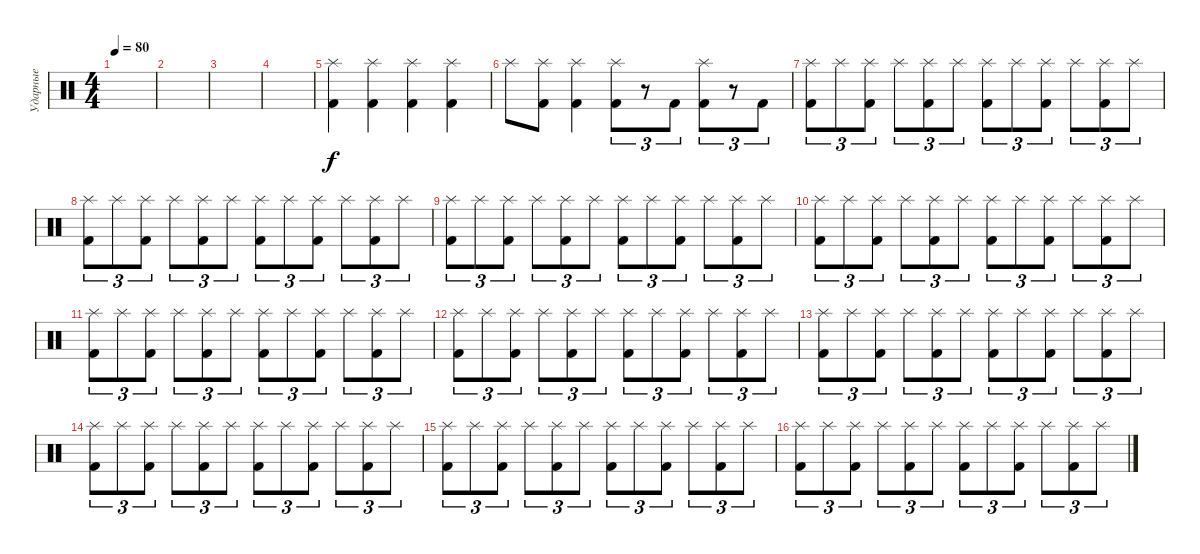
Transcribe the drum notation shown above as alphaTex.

\track ("Ударные" "Ударные") {instrument percussion}
\staff {score}
\articulation defaults
\ts (4 4)
\tempo 80
\clef neutral
\ks c
|
|
|
|
("Splash (hit)" "Kick (hit) 2").4 ("Splash (hit)" "Kick (hit) 2").4 ("Splash (hit)" "Kick (hit) 2").4 ("Splash (hit)" "Kick (hit) 2").4 |
"Splash (hit)".8 ("Splash (hit)" "Kick (hit) 2").8 ("Splash (hit)" "Kick (hit) 2").4 ("Splash (hit)" "Kick (hit) 2").8{tu (3 2)} r.8{tu (3 2)} "Kick (hit) 2".8{tu (3 2)} ("Splash (hit)" "Kick (hit) 2").8{tu (3 2)} r.8{tu (3 2)} "Kick (hit) 2".8{tu (3 2)} |
("Splash (hit)" "Kick (hit) 2").8{tu (3 2)} "Splash (hit)".8{tu (3 2)} ("Splash (hit)" "Kick (hit) 2").8{tu (3 2)} "Splash (hit)".8{tu (3 2)} ("Splash (hit)" "Kick (hit) 2").8{tu (3 2)} "Splash (hit)".8{tu (3 2)} ("Splash (hit)" "Kick (hit) 2").8{tu (3 2)} "Splash (hit)".8{tu (3 2)} ("Splash (hit)" "Kick (hit) 2").8{tu (3 2)} "Splash (hit)".8{tu (3 2)} ("Splash (hit)" "Kick (hit) 2").8{tu (3 2)} "Splash (hit)".8{tu (3 2)} |
("Splash (hit)" "Kick (hit) 2").8{tu (3 2)} "Splash (hit)".8{tu (3 2)} ("Splash (hit)" "Kick (hit) 2").8{tu (3 2)} "Splash (hit)".8{tu (3 2)} ("Splash (hit)" "Kick (hit) 2").8{tu (3 2)} "Splash (hit)".8{tu (3 2)} ("Splash (hit)" "Kick (hit) 2").8{tu (3 2)} "Splash (hit)".8{tu (3 2)} ("Splash (hit)" "Kick (hit) 2").8{tu (3 2)} "Splash (hit)".8{tu (3 2)} ("Splash (hit)" "Kick (hit) 2").8{tu (3 2)} "Splash (hit)".8{tu (3 2)} |
("Splash (hit)" "Kick (hit) 2").8{tu (3 2)} "Splash (hit)".8{tu (3 2)} ("Splash (hit)" "Kick (hit) 2").8{tu (3 2)} "Splash (hit)".8{tu (3 2)} ("Splash (hit)" "Kick (hit) 2").8{tu (3 2)} "Splash (hit)".8{tu (3 2)} ("Splash (hit)" "Kick (hit) 2").8{tu (3 2)} "Splash (hit)".8{tu (3 2)} ("Splash (hit)" "Kick (hit) 2").8{tu (3 2)} "Splash (hit)".8{tu (3 2)} ("Splash (hit)" "Kick (hit) 2").8{tu (3 2)} "Splash (hit)".8{tu (3 2)} |
("Splash (hit)" "Kick (hit) 2").8{tu (3 2)} "Splash (hit)".8{tu (3 2)} ("Splash (hit)" "Kick (hit) 2").8{tu (3 2)} "Splash (hit)".8{tu (3 2)} ("Splash (hit)" "Kick (hit) 2").8{tu (3 2)} "Splash (hit)".8{tu (3 2)} ("Splash (hit)" "Kick (hit) 2").8{tu (3 2)} "Splash (hit)".8{tu (3 2)} ("Splash (hit)" "Kick (hit) 2").8{tu (3 2)} "Splash (hit)".8{tu (3 2)} ("Splash (hit)" "Kick (hit) 2").8{tu (3 2)} "Splash (hit)".8{tu (3 2)} |
("Splash (hit)" "Kick (hit) 2").8{tu (3 2)} "Splash (hit)".8{tu (3 2)} ("Splash (hit)" "Kick (hit) 2").8{tu (3 2)} "Splash (hit)".8{tu (3 2)} ("Splash (hit)" "Kick (hit) 2").8{tu (3 2)} "Splash (hit)".8{tu (3 2)} ("Splash (hit)" "Kick (hit) 2").8{tu (3 2)} "Splash (hit)".8{tu (3 2)} ("Splash (hit)" "Kick (hit) 2").8{tu (3 2)} "Splash (hit)".8{tu (3 2)} ("Splash (hit)" "Kick (hit) 2").8{tu (3 2)} "Splash (hit)".8{tu (3 2)} |
("Splash (hit)" "Kick (hit) 2").8{tu (3 2)} "Splash (hit)".8{tu (3 2)} ("Splash (hit)" "Kick (hit) 2").8{tu (3 2)} "Splash (hit)".8{tu (3 2)} ("Splash (hit)" "Kick (hit) 2").8{tu (3 2)} "Splash (hit)".8{tu (3 2)} ("Splash (hit)" "Kick (hit) 2").8{tu (3 2)} "Splash (hit)".8{tu (3 2)} ("Splash (hit)" "Kick (hit) 2").8{tu (3 2)} "Splash (hit)".8{tu (3 2)} ("Splash (hit)" "Kick (hit) 2").8{tu (3 2)} "Splash (hit)".8{tu (3 2)} |
("Splash (hit)" "Kick (hit) 2").8{tu (3 2)} "Splash (hit)".8{tu (3 2)} ("Splash (hit)" "Kick (hit) 2").8{tu (3 2)} "Splash (hit)".8{tu (3 2)} ("Splash (hit)" "Kick (hit) 2").8{tu (3 2)} "Splash (hit)".8{tu (3 2)} ("Splash (hit)" "Kick (hit) 2").8{tu (3 2)} "Splash (hit)".8{tu (3 2)} ("Splash (hit)" "Kick (hit) 2").8{tu (3 2)} "Splash (hit)".8{tu (3 2)} ("Splash (hit)" "Kick (hit) 2").8{tu (3 2)} "Splash (hit)".8{tu (3 2)} |
("Splash (hit)" "Kick (hit) 2").8{tu (3 2)} "Splash (hit)".8{tu (3 2)} ("Splash (hit)" "Kick (hit) 2").8{tu (3 2)} "Splash (hit)".8{tu (3 2)} ("Splash (hit)" "Kick (hit) 2").8{tu (3 2)} "Splash (hit)".8{tu (3 2)} ("Splash (hit)" "Kick (hit) 2").8{tu (3 2)} "Splash (hit)".8{tu (3 2)} ("Splash (hit)" "Kick (hit) 2").8{tu (3 2)} "Splash (hit)".8{tu (3 2)} ("Splash (hit)" "Kick (hit) 2").8{tu (3 2)} "Splash (hit)".8{tu (3 2)} |
("Splash (hit)" "Kick (hit) 2").8{tu (3 2)} "Splash (hit)".8{tu (3 2)} ("Splash (hit)" "Kick (hit) 2").8{tu (3 2)} "Splash (hit)".8{tu (3 2)} ("Splash (hit)" "Kick (hit) 2").8{tu (3 2)} "Splash (hit)".8{tu (3 2)} ("Splash (hit)" "Kick (hit) 2").8{tu (3 2)} "Splash (hit)".8{tu (3 2)} ("Splash (hit)" "Kick (hit) 2").8{tu (3 2)} "Splash (hit)".8{tu (3 2)} ("Splash (hit)" "Kick (hit) 2").8{tu (3 2)} "Splash (hit)".8{tu (3 2)} |
("Splash (hit)" "Kick (hit) 2").8{tu (3 2)} "Splash (hit)".8{tu (3 2)} ("Splash (hit)" "Kick (hit) 2").8{tu (3 2)} "Splash (hit)".8{tu (3 2)} ("Splash (hit)" "Kick (hit) 2").8{tu (3 2)} "Splash (hit)".8{tu (3 2)} ("Splash (hit)" "Kick (hit) 2").8{tu (3 2)} "Splash (hit)".8{tu (3 2)} ("Splash (hit)" "Kick (hit) 2").8{tu (3 2)} "Splash (hit)".8{tu (3 2)} ("Splash (hit)" "Kick (hit) 2").8{tu (3 2)} "Splash (hit)".8{tu (3 2)}
